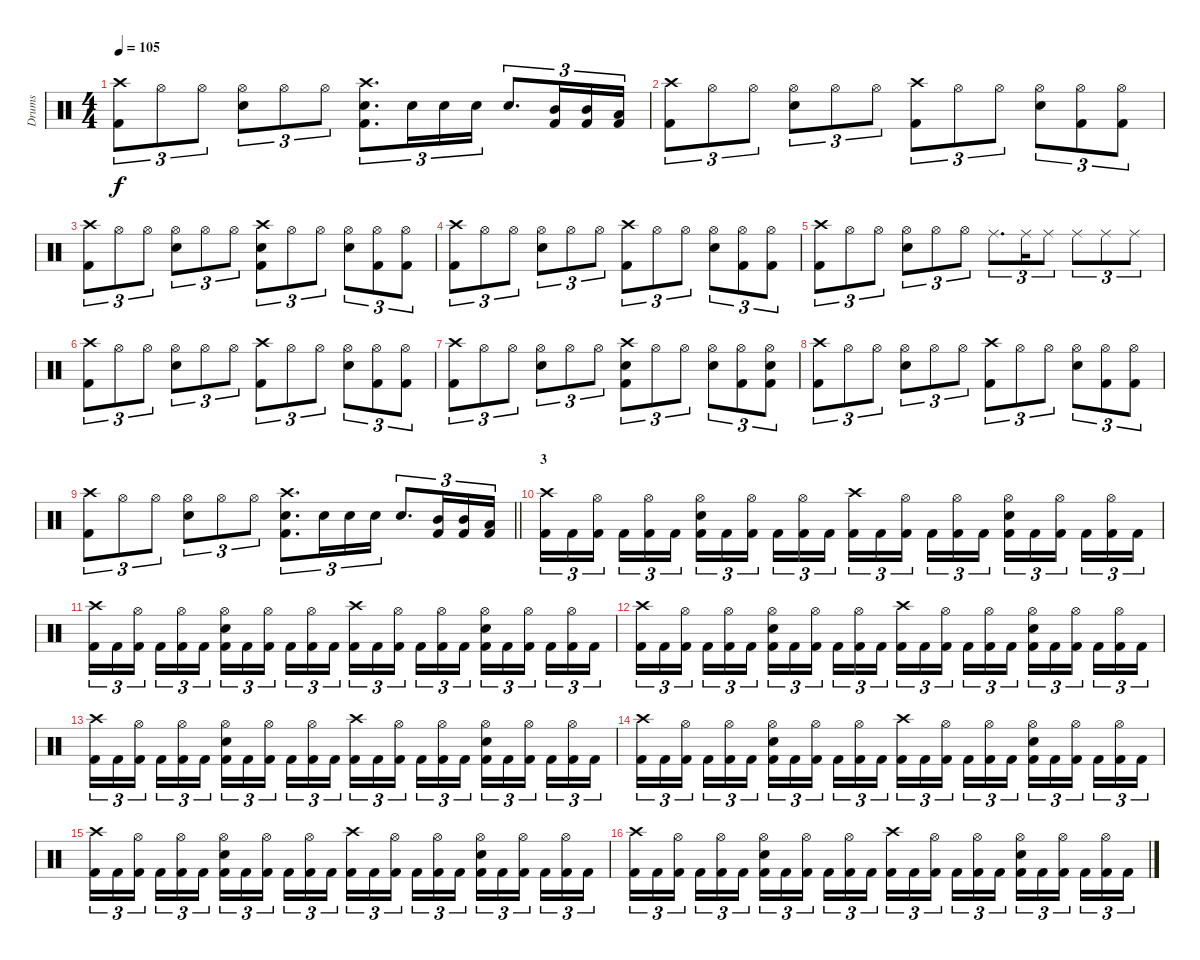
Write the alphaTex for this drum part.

\track ("Drums" "Drums") {instrument percussion}
\staff {score}
\articulation defaults
\ts (4 4)
\tempo 105
\clef neutral
\ks c
("Crash high (hit)" "Kick (hit) 2").8{tu (3 2) dy f} "Hi-Hat (open)".8{tu (3 2)} "Hi-Hat (open)".8{tu (3 2)} ("Hi-Hat (open)" "Electric Snare (hit)").8{tu (3 2)} "Hi-Hat (open)".8{tu (3 2)} "Hi-Hat (open)".8{tu (3 2)} ("Crash high (hit)" "Electric Snare (hit)" "Kick (hit) 2").8{d tu (3 2)} "Electric Snare (hit)".16{tu (3 2)} "Electric Snare (hit)".16{tu (3 2)} "Electric Snare (hit)".16{tu (3 2)} "Electric Snare (hit)".8{d tu (3 2)} ("Mid Tom (hit)" "Kick (hit) 2").16{tu (3 2)} ("Mid Tom (hit)" "Kick (hit) 2").16{tu (3 2)} ("Low Tom (hit)" "Kick (hit) 2").16{tu (3 2)} |
("Crash high (hit)" "Kick (hit) 2").8{tu (3 2)} "Hi-Hat (open)".8{tu (3 2)} "Hi-Hat (open)".8{tu (3 2)} ("Hi-Hat (open)" "Electric Snare (hit)").8{tu (3 2)} "Hi-Hat (open)".8{tu (3 2)} "Hi-Hat (open)".8{tu (3 2)} ("Crash high (hit)" "Kick (hit) 2").8{tu (3 2)} "Hi-Hat (open)".8{tu (3 2)} "Hi-Hat (open)".8{tu (3 2)} ("Hi-Hat (open)" "Electric Snare (hit)").8{tu (3 2)} ("Hi-Hat (open)" "Kick (hit) 2").8{tu (3 2)} ("Hi-Hat (open)" "Kick (hit) 2").8{tu (3 2)} |
("Crash high (hit)" "Kick (hit) 2").8{tu (3 2)} "Hi-Hat (open)".8{tu (3 2)} "Hi-Hat (open)".8{tu (3 2)} ("Hi-Hat (open)" "Electric Snare (hit)").8{tu (3 2)} "Hi-Hat (open)".8{tu (3 2)} "Hi-Hat (open)".8{tu (3 2)} ("Crash high (hit)" "Electric Snare (hit)" "Kick (hit) 2").8{tu (3 2)} "Hi-Hat (open)".8{tu (3 2)} "Hi-Hat (open)".8{tu (3 2)} ("Hi-Hat (open)" "Electric Snare (hit)").8{tu (3 2)} ("Hi-Hat (open)" "Kick (hit) 2").8{tu (3 2)} ("Hi-Hat (open)" "Kick (hit) 2").8{tu (3 2)} |
("Crash high (hit)" "Kick (hit) 2").8{tu (3 2)} "Hi-Hat (open)".8{tu (3 2)} "Hi-Hat (open)".8{tu (3 2)} ("Hi-Hat (open)" "Electric Snare (hit)").8{tu (3 2)} "Hi-Hat (open)".8{tu (3 2)} "Hi-Hat (open)".8{tu (3 2)} ("Crash high (hit)" "Kick (hit) 2").8{tu (3 2)} "Hi-Hat (open)".8{tu (3 2)} "Hi-Hat (open)".8{tu (3 2)} ("Hi-Hat (open)" "Electric Snare (hit)").8{tu (3 2)} ("Hi-Hat (open)" "Kick (hit) 2").8{tu (3 2)} ("Hi-Hat (open)" "Kick (hit) 2").8{tu (3 2)} |
("Crash high (hit)" "Kick (hit) 2").8{tu (3 2)} "Hi-Hat (open)".8{tu (3 2)} "Hi-Hat (open)".8{tu (3 2)} ("Hi-Hat (open)" "Electric Snare (hit)").8{tu (3 2)} "Hi-Hat (open)".8{tu (3 2)} "Hi-Hat (open)".8{tu (3 2)} "Ride (middle)".8{d tu (3 2)} "Ride (middle)".16{tu (3 2)} "Ride (middle)".8{tu (3 2)} "Ride (middle)".8{tu (3 2)} "Ride (middle)".8{tu (3 2)} "Ride (middle)".8{tu (3 2)} |
("Crash high (hit)" "Kick (hit) 2").8{tu (3 2)} "Hi-Hat (open)".8{tu (3 2)} "Hi-Hat (open)".8{tu (3 2)} ("Hi-Hat (open)" "Electric Snare (hit)").8{tu (3 2)} "Hi-Hat (open)".8{tu (3 2)} "Hi-Hat (open)".8{tu (3 2)} ("Crash high (hit)" "Kick (hit) 2").8{tu (3 2)} "Hi-Hat (open)".8{tu (3 2)} "Hi-Hat (open)".8{tu (3 2)} ("Hi-Hat (open)" "Electric Snare (hit)").8{tu (3 2)} ("Hi-Hat (open)" "Kick (hit) 2").8{tu (3 2)} ("Hi-Hat (open)" "Kick (hit) 2").8{tu (3 2)} |
("Crash high (hit)" "Kick (hit) 2").8{tu (3 2)} "Hi-Hat (open)".8{tu (3 2)} "Hi-Hat (open)".8{tu (3 2)} ("Hi-Hat (open)" "Electric Snare (hit)").8{tu (3 2)} "Hi-Hat (open)".8{tu (3 2)} "Hi-Hat (open)".8{tu (3 2)} ("Crash high (hit)" "Electric Snare (hit)" "Kick (hit) 2").8{tu (3 2)} "Hi-Hat (open)".8{tu (3 2)} "Hi-Hat (open)".8{tu (3 2)} ("Hi-Hat (open)" "Electric Snare (hit)").8{tu (3 2)} ("Hi-Hat (open)" "Kick (hit) 2").8{tu (3 2)} ("Hi-Hat (open)" "Electric Snare (hit)" "Kick (hit) 2").8{tu (3 2)} |
("Crash high (hit)" "Kick (hit) 2").8{tu (3 2)} "Hi-Hat (open)".8{tu (3 2)} "Hi-Hat (open)".8{tu (3 2)} ("Hi-Hat (open)" "Electric Snare (hit)").8{tu (3 2)} "Hi-Hat (open)".8{tu (3 2)} "Hi-Hat (open)".8{tu (3 2)} ("Crash high (hit)" "Kick (hit) 2").8{tu (3 2)} "Hi-Hat (open)".8{tu (3 2)} "Hi-Hat (open)".8{tu (3 2)} ("Hi-Hat (open)" "Electric Snare (hit)").8{tu (3 2)} ("Hi-Hat (open)" "Kick (hit) 2").8{tu (3 2)} ("Hi-Hat (open)" "Kick (hit) 2").8{tu (3 2)} |
\barLineRight lightlight
("Crash high (hit)" "Kick (hit) 2").8{tu (3 2)} "Hi-Hat (open)".8{tu (3 2)} "Hi-Hat (open)".8{tu (3 2)} ("Hi-Hat (open)" "Electric Snare (hit)").8{tu (3 2)} "Hi-Hat (open)".8{tu (3 2)} "Hi-Hat (open)".8{tu (3 2)} ("Crash high (hit)" "Electric Snare (hit)" "Kick (hit) 2").8{d tu (3 2)} "Electric Snare (hit)".16{tu (3 2)} "Electric Snare (hit)".16{tu (3 2)} "Electric Snare (hit)".16{tu (3 2)} "Electric Snare (hit)".8{d tu (3 2)} ("Mid Tom (hit)" "Kick (hit) 2").16{tu (3 2)} ("Mid Tom (hit)" "Kick (hit) 2").16{tu (3 2)} ("Low Tom (hit)" "Kick (hit) 2").16{tu (3 2)} |
\section ("" "3")
("Crash high (hit)" "Kick (hit) 2").16{tu (3 2)} "Kick (hit) 2".16{tu (3 2)} ("Hi-Hat (open)" "Kick (hit) 2").16{tu (3 2) beam splitsecondary} "Kick (hit) 2".16{tu (3 2)} ("Hi-Hat (open)" "Kick (hit) 2").16{tu (3 2)} "Kick (hit) 2".16{tu (3 2)} ("Hi-Hat (open)" "Electric Snare (hit)" "Kick (hit) 2").16{tu (3 2)} "Kick (hit) 2".16{tu (3 2)} ("Hi-Hat (open)" "Kick (hit) 2").16{tu (3 2) beam splitsecondary} "Kick (hit) 2".16{tu (3 2)} ("Hi-Hat (open)" "Kick (hit) 2").16{tu (3 2)} "Kick (hit) 2".16{tu (3 2)} ("Crash high (hit)" "Kick (hit) 2").16{tu (3 2)} "Kick (hit) 2".16{tu (3 2)} ("Hi-Hat (open)" "Kick (hit) 2").16{tu (3 2) beam splitsecondary} "Kick (hit) 2".16{tu (3 2)} ("Hi-Hat (open)" "Kick (hit) 2").16{tu (3 2)} "Kick (hit) 2".16{tu (3 2)} ("Hi-Hat (open)" "Electric Snare (hit)" "Kick (hit) 2").16{tu (3 2)} "Kick (hit) 2".16{tu (3 2)} ("Hi-Hat (open)" "Kick (hit) 2").16{tu (3 2) beam splitsecondary} "Kick (hit) 2".16{tu (3 2)} ("Hi-Hat (open)" "Kick (hit) 2").16{tu (3 2)} "Kick (hit) 2".16{tu (3 2)} |
("Crash high (hit)" "Kick (hit) 2").16{tu (3 2)} "Kick (hit) 2".16{tu (3 2)} ("Hi-Hat (open)" "Kick (hit) 2").16{tu (3 2) beam splitsecondary} "Kick (hit) 2".16{tu (3 2)} ("Hi-Hat (open)" "Kick (hit) 2").16{tu (3 2)} "Kick (hit) 2".16{tu (3 2)} ("Hi-Hat (open)" "Electric Snare (hit)" "Kick (hit) 2").16{tu (3 2)} "Kick (hit) 2".16{tu (3 2)} ("Hi-Hat (open)" "Kick (hit) 2").16{tu (3 2) beam splitsecondary} "Kick (hit) 2".16{tu (3 2)} ("Hi-Hat (open)" "Kick (hit) 2").16{tu (3 2)} "Kick (hit) 2".16{tu (3 2)} ("Crash high (hit)" "Kick (hit) 2").16{tu (3 2)} "Kick (hit) 2".16{tu (3 2)} ("Hi-Hat (open)" "Kick (hit) 2").16{tu (3 2) beam splitsecondary} "Kick (hit) 2".16{tu (3 2)} ("Hi-Hat (open)" "Kick (hit) 2").16{tu (3 2)} "Kick (hit) 2".16{tu (3 2)} ("Hi-Hat (open)" "Electric Snare (hit)" "Kick (hit) 2").16{tu (3 2)} "Kick (hit) 2".16{tu (3 2)} ("Hi-Hat (open)" "Kick (hit) 2").16{tu (3 2) beam splitsecondary} "Kick (hit) 2".16{tu (3 2)} ("Hi-Hat (open)" "Kick (hit) 2").16{tu (3 2)} "Kick (hit) 2".16{tu (3 2)} |
("Crash high (hit)" "Kick (hit) 2").16{tu (3 2)} "Kick (hit) 2".16{tu (3 2)} ("Hi-Hat (open)" "Kick (hit) 2").16{tu (3 2) beam splitsecondary} "Kick (hit) 2".16{tu (3 2)} ("Hi-Hat (open)" "Kick (hit) 2").16{tu (3 2)} "Kick (hit) 2".16{tu (3 2)} ("Hi-Hat (open)" "Electric Snare (hit)" "Kick (hit) 2").16{tu (3 2)} "Kick (hit) 2".16{tu (3 2)} ("Hi-Hat (open)" "Kick (hit) 2").16{tu (3 2) beam splitsecondary} "Kick (hit) 2".16{tu (3 2)} ("Hi-Hat (open)" "Kick (hit) 2").16{tu (3 2)} "Kick (hit) 2".16{tu (3 2)} ("Crash high (hit)" "Kick (hit) 2").16{tu (3 2)} "Kick (hit) 2".16{tu (3 2)} ("Hi-Hat (open)" "Kick (hit) 2").16{tu (3 2) beam splitsecondary} "Kick (hit) 2".16{tu (3 2)} ("Hi-Hat (open)" "Kick (hit) 2").16{tu (3 2)} "Kick (hit) 2".16{tu (3 2)} ("Hi-Hat (open)" "Electric Snare (hit)" "Kick (hit) 2").16{tu (3 2)} "Kick (hit) 2".16{tu (3 2)} ("Hi-Hat (open)" "Kick (hit) 2").16{tu (3 2) beam splitsecondary} "Kick (hit) 2".16{tu (3 2)} ("Hi-Hat (open)" "Kick (hit) 2").16{tu (3 2)} "Kick (hit) 2".16{tu (3 2)} |
("Crash high (hit)" "Kick (hit) 2").16{tu (3 2)} "Kick (hit) 2".16{tu (3 2)} ("Hi-Hat (open)" "Kick (hit) 2").16{tu (3 2) beam splitsecondary} "Kick (hit) 2".16{tu (3 2)} ("Hi-Hat (open)" "Kick (hit) 2").16{tu (3 2)} "Kick (hit) 2".16{tu (3 2)} ("Hi-Hat (open)" "Electric Snare (hit)" "Kick (hit) 2").16{tu (3 2)} "Kick (hit) 2".16{tu (3 2)} ("Hi-Hat (open)" "Kick (hit) 2").16{tu (3 2) beam splitsecondary} "Kick (hit) 2".16{tu (3 2)} ("Hi-Hat (open)" "Kick (hit) 2").16{tu (3 2)} "Kick (hit) 2".16{tu (3 2)} ("Crash high (hit)" "Kick (hit) 2").16{tu (3 2)} "Kick (hit) 2".16{tu (3 2)} ("Hi-Hat (open)" "Kick (hit) 2").16{tu (3 2) beam splitsecondary} "Kick (hit) 2".16{tu (3 2)} ("Hi-Hat (open)" "Kick (hit) 2").16{tu (3 2)} "Kick (hit) 2".16{tu (3 2)} ("Hi-Hat (open)" "Electric Snare (hit)" "Kick (hit) 2").16{tu (3 2)} "Kick (hit) 2".16{tu (3 2)} ("Hi-Hat (open)" "Kick (hit) 2").16{tu (3 2) beam splitsecondary} "Kick (hit) 2".16{tu (3 2)} ("Hi-Hat (open)" "Kick (hit) 2").16{tu (3 2)} "Kick (hit) 2".16{tu (3 2)} |
("Crash high (hit)" "Kick (hit) 2").16{tu (3 2)} "Kick (hit) 2".16{tu (3 2)} ("Hi-Hat (open)" "Kick (hit) 2").16{tu (3 2) beam splitsecondary} "Kick (hit) 2".16{tu (3 2)} ("Hi-Hat (open)" "Kick (hit) 2").16{tu (3 2)} "Kick (hit) 2".16{tu (3 2)} ("Hi-Hat (open)" "Electric Snare (hit)" "Kick (hit) 2").16{tu (3 2)} "Kick (hit) 2".16{tu (3 2)} ("Hi-Hat (open)" "Kick (hit) 2").16{tu (3 2) beam splitsecondary} "Kick (hit) 2".16{tu (3 2)} ("Hi-Hat (open)" "Kick (hit) 2").16{tu (3 2)} "Kick (hit) 2".16{tu (3 2)} ("Crash high (hit)" "Kick (hit) 2").16{tu (3 2)} "Kick (hit) 2".16{tu (3 2)} ("Hi-Hat (open)" "Kick (hit) 2").16{tu (3 2) beam splitsecondary} "Kick (hit) 2".16{tu (3 2)} ("Hi-Hat (open)" "Kick (hit) 2").16{tu (3 2)} "Kick (hit) 2".16{tu (3 2)} ("Hi-Hat (open)" "Electric Snare (hit)" "Kick (hit) 2").16{tu (3 2)} "Kick (hit) 2".16{tu (3 2)} ("Hi-Hat (open)" "Kick (hit) 2").16{tu (3 2) beam splitsecondary} "Kick (hit) 2".16{tu (3 2)} ("Hi-Hat (open)" "Kick (hit) 2").16{tu (3 2)} "Kick (hit) 2".16{tu (3 2)} |
("Crash high (hit)" "Kick (hit) 2").16{tu (3 2)} "Kick (hit) 2".16{tu (3 2)} ("Hi-Hat (open)" "Kick (hit) 2").16{tu (3 2) beam splitsecondary} "Kick (hit) 2".16{tu (3 2)} ("Hi-Hat (open)" "Kick (hit) 2").16{tu (3 2)} "Kick (hit) 2".16{tu (3 2)} ("Hi-Hat (open)" "Electric Snare (hit)" "Kick (hit) 2").16{tu (3 2)} "Kick (hit) 2".16{tu (3 2)} ("Hi-Hat (open)" "Kick (hit) 2").16{tu (3 2) beam splitsecondary} "Kick (hit) 2".16{tu (3 2)} ("Hi-Hat (open)" "Kick (hit) 2").16{tu (3 2)} "Kick (hit) 2".16{tu (3 2)} ("Crash high (hit)" "Kick (hit) 2").16{tu (3 2)} "Kick (hit) 2".16{tu (3 2)} ("Hi-Hat (open)" "Kick (hit) 2").16{tu (3 2) beam splitsecondary} "Kick (hit) 2".16{tu (3 2)} ("Hi-Hat (open)" "Kick (hit) 2").16{tu (3 2)} "Kick (hit) 2".16{tu (3 2)} ("Hi-Hat (open)" "Electric Snare (hit)" "Kick (hit) 2").16{tu (3 2)} "Kick (hit) 2".16{tu (3 2)} ("Hi-Hat (open)" "Kick (hit) 2").16{tu (3 2) beam splitsecondary} "Kick (hit) 2".16{tu (3 2)} ("Hi-Hat (open)" "Kick (hit) 2").16{tu (3 2)} "Kick (hit) 2".16{tu (3 2)} |
("Crash high (hit)" "Kick (hit) 2").16{tu (3 2)} "Kick (hit) 2".16{tu (3 2)} ("Hi-Hat (open)" "Kick (hit) 2").16{tu (3 2) beam splitsecondary} "Kick (hit) 2".16{tu (3 2)} ("Hi-Hat (open)" "Kick (hit) 2").16{tu (3 2)} "Kick (hit) 2".16{tu (3 2)} ("Hi-Hat (open)" "Electric Snare (hit)" "Kick (hit) 2").16{tu (3 2)} "Kick (hit) 2".16{tu (3 2)} ("Hi-Hat (open)" "Kick (hit) 2").16{tu (3 2) beam splitsecondary} "Kick (hit) 2".16{tu (3 2)} ("Hi-Hat (open)" "Kick (hit) 2").16{tu (3 2)} "Kick (hit) 2".16{tu (3 2)} ("Crash high (hit)" "Kick (hit) 2").16{tu (3 2)} "Kick (hit) 2".16{tu (3 2)} ("Hi-Hat (open)" "Kick (hit) 2").16{tu (3 2) beam splitsecondary} "Kick (hit) 2".16{tu (3 2)} ("Hi-Hat (open)" "Kick (hit) 2").16{tu (3 2)} "Kick (hit) 2".16{tu (3 2)} ("Hi-Hat (open)" "Electric Snare (hit)" "Kick (hit) 2").16{tu (3 2)} "Kick (hit) 2".16{tu (3 2)} ("Hi-Hat (open)" "Kick (hit) 2").16{tu (3 2) beam splitsecondary} "Kick (hit) 2".16{tu (3 2)} ("Hi-Hat (open)" "Kick (hit) 2").16{tu (3 2)} "Kick (hit) 2".16{tu (3 2)}
